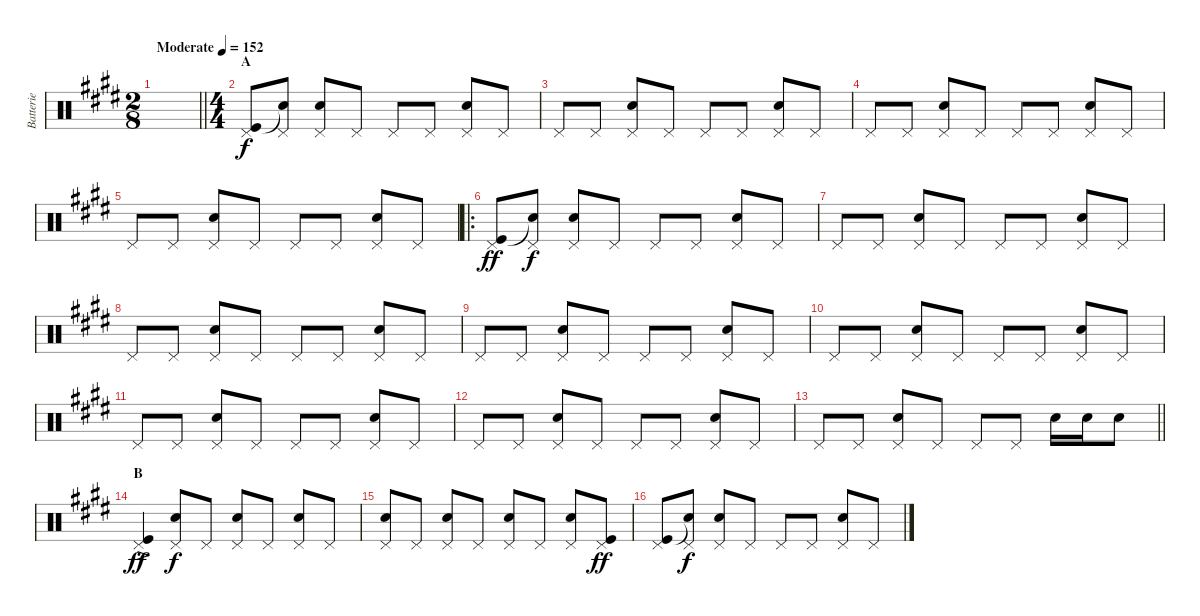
\track ("Batterie" "Batterie") {instrument percussion}
\staff {score}
\articulation defaults
\ts (2 8)
\tempo (152 "Moderate")
\clef neutral
\barLineRight lightlight
\ks e
|
\ts (4 4)
\section ("" "A")
("Pedal Hi-Hat (hit)" "Kick (hit)").8 ("Pedal Hi-Hat (hit)" "Snare (hit)"{t}).8{dy f} ("Pedal Hi-Hat (hit)" "Electric Snare (hit)").8 "Pedal Hi-Hat (hit)".8 "Pedal Hi-Hat (hit)".8 "Pedal Hi-Hat (hit)".8 ("Pedal Hi-Hat (hit)" "Electric Snare (hit)").8 "Pedal Hi-Hat (hit)".8 |
"Pedal Hi-Hat (hit)".8 "Pedal Hi-Hat (hit)".8 ("Pedal Hi-Hat (hit)" "Electric Snare (hit)").8 "Pedal Hi-Hat (hit)".8 "Pedal Hi-Hat (hit)".8 "Pedal Hi-Hat (hit)".8 ("Pedal Hi-Hat (hit)" "Electric Snare (hit)").8 "Pedal Hi-Hat (hit)".8 |
"Pedal Hi-Hat (hit)".8 "Pedal Hi-Hat (hit)".8 ("Pedal Hi-Hat (hit)" "Electric Snare (hit)").8 "Pedal Hi-Hat (hit)".8 "Pedal Hi-Hat (hit)".8 "Pedal Hi-Hat (hit)".8 ("Pedal Hi-Hat (hit)" "Electric Snare (hit)").8 "Pedal Hi-Hat (hit)".8 |
"Pedal Hi-Hat (hit)".8 "Pedal Hi-Hat (hit)".8 ("Pedal Hi-Hat (hit)" "Electric Snare (hit)").8 "Pedal Hi-Hat (hit)".8 "Pedal Hi-Hat (hit)".8 "Pedal Hi-Hat (hit)".8 ("Pedal Hi-Hat (hit)" "Electric Snare (hit)").8 "Pedal Hi-Hat (hit)".8 |
\ro
("Pedal Hi-Hat (hit)" "Kick (hit)").8{dy ff} ("Pedal Hi-Hat (hit)" "Snare (hit)"{t}).8{dy f} ("Pedal Hi-Hat (hit)" "Electric Snare (hit)").8 "Pedal Hi-Hat (hit)".8 "Pedal Hi-Hat (hit)".8 "Pedal Hi-Hat (hit)".8 ("Pedal Hi-Hat (hit)" "Electric Snare (hit)").8 "Pedal Hi-Hat (hit)".8 |
"Pedal Hi-Hat (hit)".8 "Pedal Hi-Hat (hit)".8 ("Pedal Hi-Hat (hit)" "Electric Snare (hit)").8 "Pedal Hi-Hat (hit)".8 "Pedal Hi-Hat (hit)".8 "Pedal Hi-Hat (hit)".8 ("Pedal Hi-Hat (hit)" "Electric Snare (hit)").8 "Pedal Hi-Hat (hit)".8 |
"Pedal Hi-Hat (hit)".8 "Pedal Hi-Hat (hit)".8 ("Pedal Hi-Hat (hit)" "Electric Snare (hit)").8 "Pedal Hi-Hat (hit)".8 "Pedal Hi-Hat (hit)".8 "Pedal Hi-Hat (hit)".8 ("Pedal Hi-Hat (hit)" "Electric Snare (hit)").8 "Pedal Hi-Hat (hit)".8 |
"Pedal Hi-Hat (hit)".8 "Pedal Hi-Hat (hit)".8 ("Pedal Hi-Hat (hit)" "Electric Snare (hit)").8 "Pedal Hi-Hat (hit)".8 "Pedal Hi-Hat (hit)".8 "Pedal Hi-Hat (hit)".8 ("Pedal Hi-Hat (hit)" "Electric Snare (hit)").8 "Pedal Hi-Hat (hit)".8 |
"Pedal Hi-Hat (hit)".8 "Pedal Hi-Hat (hit)".8 ("Pedal Hi-Hat (hit)" "Electric Snare (hit)").8 "Pedal Hi-Hat (hit)".8 "Pedal Hi-Hat (hit)".8 "Pedal Hi-Hat (hit)".8 ("Pedal Hi-Hat (hit)" "Electric Snare (hit)").8 "Pedal Hi-Hat (hit)".8 |
"Pedal Hi-Hat (hit)".8 "Pedal Hi-Hat (hit)".8 ("Pedal Hi-Hat (hit)" "Electric Snare (hit)").8 "Pedal Hi-Hat (hit)".8 "Pedal Hi-Hat (hit)".8 "Pedal Hi-Hat (hit)".8 ("Pedal Hi-Hat (hit)" "Electric Snare (hit)").8 "Pedal Hi-Hat (hit)".8 |
"Pedal Hi-Hat (hit)".8 "Pedal Hi-Hat (hit)".8 ("Pedal Hi-Hat (hit)" "Electric Snare (hit)").8 "Pedal Hi-Hat (hit)".8 "Pedal Hi-Hat (hit)".8 "Pedal Hi-Hat (hit)".8 ("Pedal Hi-Hat (hit)" "Electric Snare (hit)").8 "Pedal Hi-Hat (hit)".8 |
\barLineRight lightlight "Pedal Hi-Hat (hit)".8 "Pedal Hi-Hat (hit)".8
("Pedal Hi-Hat (hit)" "Electric Snare (hit)").8 "Pedal Hi-Hat (hit)".8 "Pedal Hi-Hat (hit)".8 "Pedal Hi-Hat (hit)".8 "Electric Snare (hit)".16 "Electric Snare (hit)".16 "Electric Snare (hit)".8 |
\section ("" "B")
("Pedal Hi-Hat (hit)"{ac} "Kick (hit)"{ac}).4{dy ff} ("Pedal Hi-Hat (hit)" "Electric Snare (hit)").8{dy f} "Pedal Hi-Hat (hit)".8 ("Pedal Hi-Hat (hit)" "Electric Snare (hit)").8 "Pedal Hi-Hat (hit)".8 ("Pedal Hi-Hat (hit)" "Electric Snare (hit)").8 "Pedal Hi-Hat (hit)".8 |
("Pedal Hi-Hat (hit)" "Electric Snare (hit)").8 "Pedal Hi-Hat (hit)".8 ("Pedal Hi-Hat (hit)" "Electric Snare (hit)").8 "Pedal Hi-Hat (hit)".8 ("Pedal Hi-Hat (hit)" "Electric Snare (hit)").8 "Pedal Hi-Hat (hit)".8 ("Pedal Hi-Hat (hit)" "Electric Snare (hit)").8 ("Pedal Hi-Hat (hit)" "Kick (hit)").8{dy ff} |
("Pedal Hi-Hat (hit)" "Kick (hit)").8 ("Pedal Hi-Hat (hit)" "Snare (hit)"{t}).8{dy f} ("Pedal Hi-Hat (hit)" "Electric Snare (hit)").8 "Pedal Hi-Hat (hit)".8 "Pedal Hi-Hat (hit)".8 "Pedal Hi-Hat (hit)".8 ("Pedal Hi-Hat (hit)" "Electric Snare (hit)").8 "Pedal Hi-Hat (hit)".8
